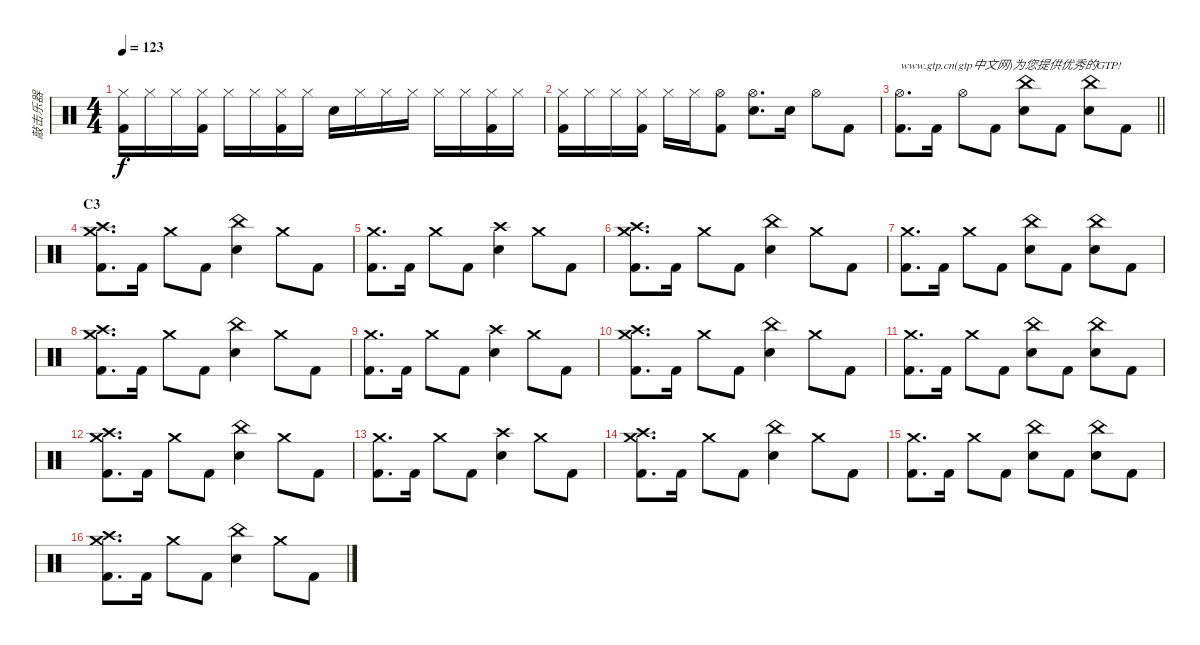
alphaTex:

\track ("敲击乐器" "敲击乐器") {instrument percussion}
\staff {score}
\articulation defaults
\ts (4 4)
\tempo 123
\clef neutral
\ks c
("Hi-Hat (closed)" "Kick (hit) 2").16{dy f} "Hi-Hat (closed)".16 "Hi-Hat (closed)".16 ("Hi-Hat (closed)" "Kick (hit) 2").16 "Hi-Hat (closed)".16 "Hi-Hat (closed)".16 ("Hi-Hat (closed)" "Kick (hit) 2").16 "Hi-Hat (closed)".16 "Electric Snare (hit)".16 "Hi-Hat (closed)".16 "Hi-Hat (closed)".16 "Hi-Hat (closed)".16 "Hi-Hat (closed)".16 "Hi-Hat (closed)".16 ("Hi-Hat (closed)" "Kick (hit) 2").16 "Hi-Hat (closed)".16 |
("Hi-Hat (closed)" "Kick (hit) 2").16 "Hi-Hat (closed)".16 "Hi-Hat (closed)".16 ("Hi-Hat (closed)" "Kick (hit) 2").16 "Hi-Hat (closed)".16 "Hi-Hat (closed)".16 ("Hi-Hat (open)" "Kick (hit) 2").8 ("Hi-Hat (open)" "Electric Snare (hit)").8{d} "Electric Snare (hit)".16 "Hi-Hat (open)".8 "Kick (hit) 2".8 |
\barLineRight lightlight
("Hi-Hat (open)" "Kick (hit) 2").8{d txt "www.gtp.cn(gtp中文网)为您提供优秀的GTP!"} "Kick (hit) 2".16 "Hi-Hat (open)".8 "Kick (hit) 2".8 ("China (hit)" "Electric Snare (hit)").8 "Kick (hit) 2".8 ("China (hit)" "Electric Snare (hit)").8 "Kick (hit) 2".8 |
\section ("" "C3")
("Crash high (hit)" "Crash medium (hit)" "Kick (hit) 2").8{d} "Kick (hit) 2".16 "Crash medium (hit)".8 "Kick (hit) 2".8 ("China (hit)" "Electric Snare (hit)").4 "Crash medium (hit)".8 "Kick (hit) 2".8 |
("Crash medium (hit)" "Kick (hit) 2").8{d} "Kick (hit) 2".16 "Crash medium (hit)".8 "Kick (hit) 2".8 ("Crash high (hit)" "Electric Snare (hit)").4 "Crash medium (hit)".8 "Kick (hit) 2".8 |
("Crash high (hit)" "Crash medium (hit)" "Kick (hit) 2").8{d} "Kick (hit) 2".16 "Crash medium (hit)".8 "Kick (hit) 2".8 ("China (hit)" "Electric Snare (hit)").4 "Crash medium (hit)".8 "Kick (hit) 2".8 |
("Crash medium (hit)" "Kick (hit) 2").8{d} "Kick (hit) 2".16 "Crash medium (hit)".8 "Kick (hit) 2".8 ("China (hit)" "Electric Snare (hit)").8 "Kick (hit) 2".8 ("China (hit)" "Electric Snare (hit)").8 "Kick (hit) 2".8 |
("Crash high (hit)" "Crash medium (hit)" "Kick (hit) 2").8{d} "Kick (hit) 2".16 "Crash medium (hit)".8 "Kick (hit) 2".8 ("China (hit)" "Electric Snare (hit)").4 "Crash medium (hit)".8 "Kick (hit) 2".8 |
("Crash medium (hit)" "Kick (hit) 2").8{d} "Kick (hit) 2".16 "Crash medium (hit)".8 "Kick (hit) 2".8 ("Crash high (hit)" "Electric Snare (hit)").4 "Crash medium (hit)".8 "Kick (hit) 2".8 |
("Crash high (hit)" "Crash medium (hit)" "Kick (hit) 2").8{d} "Kick (hit) 2".16 "Crash medium (hit)".8 "Kick (hit) 2".8 ("China (hit)" "Electric Snare (hit)").4 "Crash medium (hit)".8 "Kick (hit) 2".8 |
("Crash medium (hit)" "Kick (hit) 2").8{d} "Kick (hit) 2".16 "Crash medium (hit)".8 "Kick (hit) 2".8 ("China (hit)" "Electric Snare (hit)").8 "Kick (hit) 2".8 ("China (hit)" "Electric Snare (hit)").8 "Kick (hit) 2".8 |
("Crash high (hit)" "Crash medium (hit)" "Kick (hit) 2").8{d} "Kick (hit) 2".16 "Crash medium (hit)".8 "Kick (hit) 2".8 ("China (hit)" "Electric Snare (hit)").4 "Crash medium (hit)".8 "Kick (hit) 2".8 |
("Crash medium (hit)" "Kick (hit) 2").8{d} "Kick (hit) 2".16 "Crash medium (hit)".8 "Kick (hit) 2".8 ("Crash high (hit)" "Electric Snare (hit)").4 "Crash medium (hit)".8 "Kick (hit) 2".8 |
("Crash high (hit)" "Crash medium (hit)" "Kick (hit) 2").8{d} "Kick (hit) 2".16 "Crash medium (hit)".8 "Kick (hit) 2".8 ("China (hit)" "Electric Snare (hit)").4 "Crash medium (hit)".8 "Kick (hit) 2".8 |
("Crash medium (hit)" "Kick (hit) 2").8{d} "Kick (hit) 2".16 "Crash medium (hit)".8 "Kick (hit) 2".8 ("China (hit)" "Electric Snare (hit)").8 "Kick (hit) 2".8 ("China (hit)" "Electric Snare (hit)").8 "Kick (hit) 2".8 |
("Crash high (hit)" "Crash medium (hit)" "Kick (hit) 2").8{d} "Kick (hit) 2".16 "Crash medium (hit)".8 "Kick (hit) 2".8 ("China (hit)" "Electric Snare (hit)").4 "Crash medium (hit)".8 "Kick (hit) 2".8
